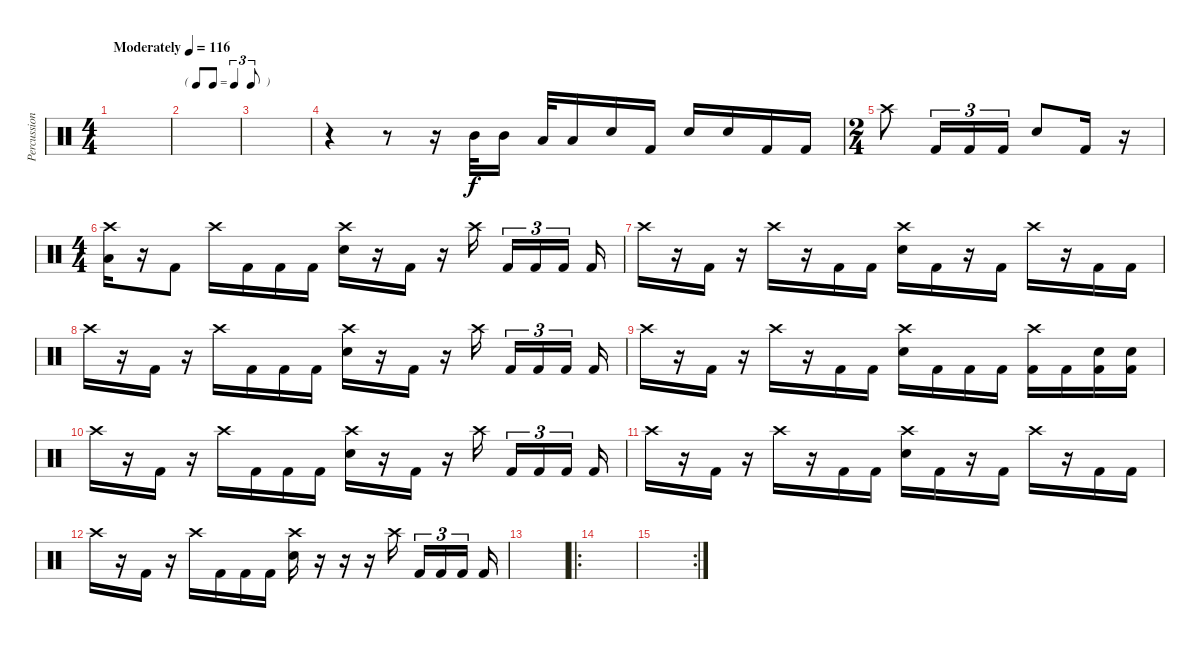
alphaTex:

\track ("Percussion" "Percussion") {instrument percussion}
\staff {score}
\articulation defaults
\ts (4 4)
\tempo (116 "Moderately")
\clef neutral
\ks c
|
\tf triplet8th
|
|
r.4 r.8 r.16 "Mid Tom (hit)".32 "Mid Tom (hit)".16 "Low Tom (hit)".32 "Low Tom (hit)".16 "Snare (hit) 2".16 "Kick (hit) 2".16 "Snare (hit) 2".16 "Snare (hit) 2".16 "Kick (hit) 2".16 "Kick (hit) 2".16 |
\ts (2 4)
"Crash high (hit)".8 "Kick (hit) 2".16{tu (3 2)} "Kick (hit) 2".16{tu (3 2)} "Kick (hit) 2".16{tu (3 2)} "Snare (hit) 2".8 "Kick (hit) 2".16 r.16 |
\ts (4 4)
("Crash high (hit)" "Low Floor Tom (hit)").16 r.16 "Kick (hit) 2".8 "Crash high (hit)".16 "Kick (hit) 2".16 "Kick (hit) 2".16 "Kick (hit) 2".16 ("Snare (hit) 2" "Crash high (hit)").16 r.16 "Kick (hit) 2".16 r.16 "Crash high (hit)".16{beam splitsecondary} "Kick (hit) 2".16{tu (3 2)} "Kick (hit) 2".16{tu (3 2)} "Kick (hit) 2".16{tu (3 2) beam splitsecondary} "Kick (hit) 2".16 |
"Crash high (hit)".16 r.16 "Kick (hit) 2".16 r.16 "Crash high (hit)".16 r.16 "Kick (hit) 2".16 "Kick (hit) 2".16 ("Snare (hit) 2" "Crash high (hit)").16 "Kick (hit) 2".16 r.16 "Kick (hit) 2".16 "Crash high (hit)".16 r.16 "Kick (hit) 2".16 "Kick (hit) 2".16 |
"Crash high (hit)".16 r.16 "Kick (hit) 2".16 r.16 "Crash high (hit)".16 "Kick (hit) 2".16 "Kick (hit) 2".16 "Kick (hit) 2".16 ("Snare (hit) 2" "Crash high (hit)").16 r.16 "Kick (hit) 2".16 r.16 "Crash high (hit)".16{beam splitsecondary} "Kick (hit) 2".16{tu (3 2)} "Kick (hit) 2".16{tu (3 2)} "Kick (hit) 2".16{tu (3 2) beam splitsecondary} "Kick (hit) 2".16 |
"Crash high (hit)".16 r.16 "Kick (hit) 2".16 r.16 "Crash high (hit)".16 r.16 "Kick (hit) 2".16 "Kick (hit) 2".16 ("Snare (hit) 2" "Crash high (hit)").16 "Kick (hit) 2".16 "Kick (hit) 2".16 "Kick (hit) 2".16 ("Crash high (hit)" "Kick (hit) 2").16 "Kick (hit) 2".16 ("Snare (hit) 2" "Kick (hit) 2").16 ("Snare (hit) 2" "Kick (hit) 2").16 |
"Crash high (hit)".16 r.16 "Kick (hit) 2".16 r.16 "Crash high (hit)".16 "Kick (hit) 2".16 "Kick (hit) 2".16 "Kick (hit) 2".16 ("Snare (hit) 2" "Crash high (hit)").16 r.16 "Kick (hit) 2".16 r.16 "Crash high (hit)".16{beam splitsecondary} "Kick (hit) 2".16{tu (3 2)} "Kick (hit) 2".16{tu (3 2)} "Kick (hit) 2".16{tu (3 2) beam splitsecondary} "Kick (hit) 2".16 |
"Crash high (hit)".16 r.16 "Kick (hit) 2".16 r.16 "Crash high (hit)".16 r.16 "Kick (hit) 2".16 "Kick (hit) 2".16 ("Snare (hit) 2" "Crash high (hit)").16 "Kick (hit) 2".16 r.16 "Kick (hit) 2".16 "Crash high (hit)".16 r.16 "Kick (hit) 2".16 "Kick (hit) 2".16 |
"Crash high (hit)".16 r.16 "Kick (hit) 2".16 r.16 "Crash high (hit)".16 "Kick (hit) 2".16 "Kick (hit) 2".16 "Kick (hit) 2".16 ("Snare (hit) 2" "Crash high (hit)").16 r.16 r.16 r.16 "Crash high (hit)".16{beam splitsecondary} "Kick (hit) 2".16{tu (3 2)} "Kick (hit) 2".16{tu (3 2)} "Kick (hit) 2".16{tu (3 2) beam splitsecondary} "Kick (hit) 2".16 |
|
\ro
|
\rc 2
